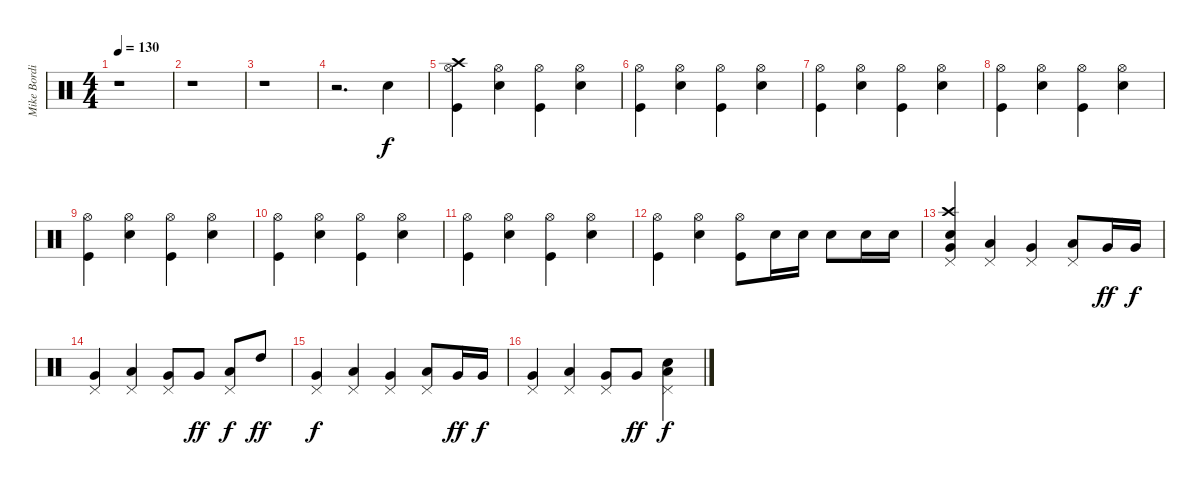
\track ("Mike Bordin" "Mike Bordi") {instrument percussion}
\staff {score}
\articulation defaults
\ts (4 4)
\tempo 130
\clef neutral
\ks c
r.1{dy f} |
r.1 |
r.1 |
r.2{d} "Snare (hit) 2".4{balance 8} |
("Kick (hit)" "Hi-Hat (open)" "Crash high (hit)").4 ("Snare (hit) 2" "Hi-Hat (open)").4 ("Kick (hit)" "Hi-Hat (open)").4 ("Snare (hit) 2" "Hi-Hat (open)").4 |
("Kick (hit)" "Hi-Hat (open)").4 ("Snare (hit) 2" "Hi-Hat (open)").4 ("Kick (hit)" "Hi-Hat (open)").4 ("Snare (hit) 2" "Hi-Hat (open)").4 |
("Kick (hit)" "Hi-Hat (open)").4 ("Snare (hit) 2" "Hi-Hat (open)").4 ("Kick (hit)" "Hi-Hat (open)").4 ("Snare (hit) 2" "Hi-Hat (open)").4 |
("Kick (hit)" "Hi-Hat (open)").4 ("Snare (hit) 2" "Hi-Hat (open)").4 ("Kick (hit)" "Hi-Hat (open)").4 ("Snare (hit) 2" "Hi-Hat (open)").4 |
("Kick (hit)" "Hi-Hat (open)").4 ("Snare (hit) 2" "Hi-Hat (open)").4 ("Kick (hit)" "Hi-Hat (open)").4 ("Snare (hit) 2" "Hi-Hat (open)").4 |
("Kick (hit)" "Hi-Hat (open)").4 ("Snare (hit) 2" "Hi-Hat (open)").4 ("Kick (hit)" "Hi-Hat (open)").4 ("Snare (hit) 2" "Hi-Hat (open)").4 |
("Kick (hit)" "Hi-Hat (open)").4 ("Snare (hit) 2" "Hi-Hat (open)").4 ("Kick (hit)" "Hi-Hat (open)").4 ("Snare (hit) 2" "Hi-Hat (open)").4 |
("Kick (hit)" "Hi-Hat (open)").4 ("Snare (hit) 2" "Hi-Hat (open)").4 ("Kick (hit)" "Hi-Hat (open)").8 "Snare (hit) 2".16 "Snare (hit) 2".16 "Snare (hit) 2".8 "Snare (hit) 2".16 "Snare (hit) 2".16 |
("Snare (hit) 2" "Pedal Hi-Hat (hit)" "Crash high (hit)" "Very Low Tom (hit)").4 ("Pedal Hi-Hat (hit)" "Low Tom (hit)").4 ("Pedal Hi-Hat (hit)" "Very Low Tom (hit)").4 ("Pedal Hi-Hat (hit)" "Low Tom (hit)").8 "Very Low Tom (hit)".16{dy ff} "Very Low Tom (hit)".16{dy f} |
("Pedal Hi-Hat (hit)" "Very Low Tom (hit)").4 ("Pedal Hi-Hat (hit)" "Low Tom (hit)").4 ("Pedal Hi-Hat (hit)" "Very Low Tom (hit)").8 "Very Low Tom (hit)".8{dy ff} ("Pedal Hi-Hat (hit)" "Low Tom (hit)").8{dy f} "High Tom (hit)".8{dy ff} |
("Pedal Hi-Hat (hit)" "Very Low Tom (hit)").4{dy f} ("Pedal Hi-Hat (hit)" "Low Tom (hit)").4 ("Pedal Hi-Hat (hit)" "Very Low Tom (hit)").4 ("Pedal Hi-Hat (hit)" "Low Tom (hit)").8 "Very Low Tom (hit)".16{dy ff} "Very Low Tom (hit)".16{dy f} |
("Pedal Hi-Hat (hit)" "Very Low Tom (hit)").4 ("Pedal Hi-Hat (hit)" "Low Tom (hit)").4 ("Pedal Hi-Hat (hit)" "Very Low Tom (hit)").8 "Very Low Tom (hit)".8{dy ff} ("Snare (hit) 2" "Pedal Hi-Hat (hit)" "Low Tom (hit)").4{dy f}
